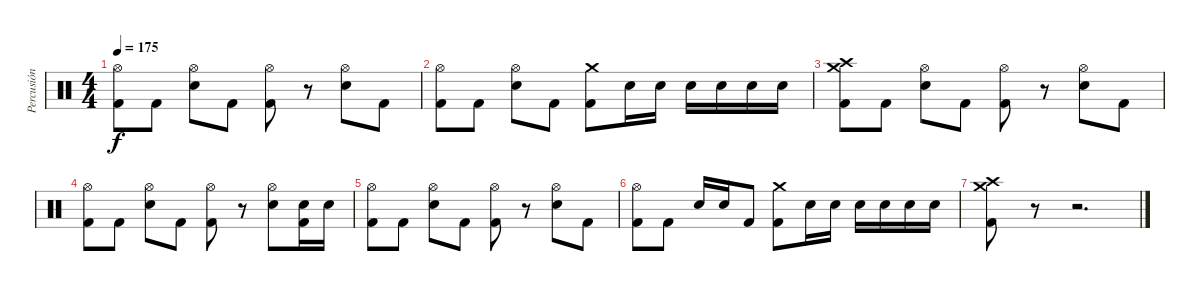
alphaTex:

\track ("Percusión" "Percusión") {instrument percussion}
\staff {score}
\articulation defaults
\ts (4 4)
\tempo 175
\clef neutral
\ks c
("Hi-Hat (open)" "Kick (hit) 2").8{dy f} "Kick (hit) 2".8 ("Hi-Hat (open)" "Electric Snare (hit)").8 "Kick (hit) 2".8 ("Hi-Hat (open)" "Kick (hit) 2").8 r.8 ("Hi-Hat (open)" "Electric Snare (hit)").8 "Kick (hit) 2".8 |
("Hi-Hat (open)" "Kick (hit) 2").8 "Kick (hit) 2".8 ("Hi-Hat (open)" "Electric Snare (hit)").8 "Kick (hit) 2".8 ("Crash medium (hit)" "Kick (hit) 2").8 "Electric Snare (hit)".16 "Electric Snare (hit)".16 "Electric Snare (hit)".16 "Electric Snare (hit)".16 "Electric Snare (hit)".16 "Electric Snare (hit)".16 |
("Crash medium (hit)" "Crash high (hit)" "Kick (hit) 2").8 "Kick (hit) 2".8 ("Hi-Hat (open)" "Electric Snare (hit)").8 "Kick (hit) 2".8 ("Hi-Hat (open)" "Kick (hit) 2").8 r.8 ("Hi-Hat (open)" "Electric Snare (hit)").8 "Kick (hit) 2".8 |
("Hi-Hat (open)" "Kick (hit) 2").8 "Kick (hit) 2".8 ("Hi-Hat (open)" "Electric Snare (hit)").8 "Kick (hit) 2".8 ("Hi-Hat (open)" "Kick (hit) 2").8 r.8 ("Hi-Hat (open)" "Electric Snare (hit)").8 ("Electric Snare (hit)" "Kick (hit) 2").16 "Electric Snare (hit)".16 |
("Hi-Hat (open)" "Kick (hit) 2").8 "Kick (hit) 2".8 ("Hi-Hat (open)" "Electric Snare (hit)").8 "Kick (hit) 2".8 ("Hi-Hat (open)" "Kick (hit) 2").8 r.8 ("Hi-Hat (open)" "Electric Snare (hit)").8 "Kick (hit) 2".8 |
("Hi-Hat (open)" "Kick (hit) 2").8 "Kick (hit) 2".8 "Electric Snare (hit)".16 "Electric Snare (hit)".16 "Kick (hit) 2".8 ("Crash medium (hit)" "Kick (hit) 2").8 "Electric Snare (hit)".16 "Electric Snare (hit)".16 "Electric Snare (hit)".16 "Electric Snare (hit)".16 "Electric Snare (hit)".16 "Electric Snare (hit)".16 |
("Crash high (hit)" "Crash medium (hit)" "Kick (hit) 2").8 r.8 r.2{d}
